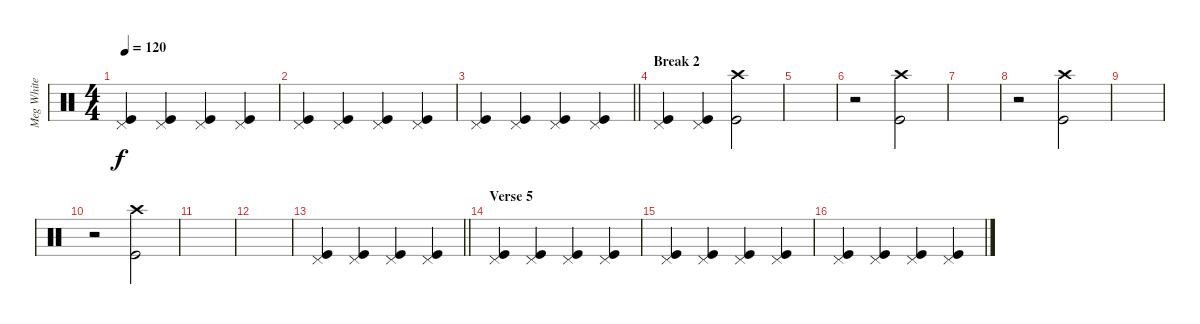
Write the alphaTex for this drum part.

\track ("Meg White (Drums)" "Meg White ") {instrument percussion}
\staff {score}
\articulation defaults
\ts (4 4)
\tempo 120
\clef neutral
\ks c
("Kick (hit)" "Pedal Hi-Hat (hit)").4{dy f} ("Kick (hit)" "Pedal Hi-Hat (hit)").4 ("Kick (hit)" "Pedal Hi-Hat (hit)").4 ("Kick (hit)" "Pedal Hi-Hat (hit)").4 |
("Kick (hit)" "Pedal Hi-Hat (hit)").4 ("Kick (hit)" "Pedal Hi-Hat (hit)").4 ("Kick (hit)" "Pedal Hi-Hat (hit)").4 ("Kick (hit)" "Pedal Hi-Hat (hit)").4 |
\barLineRight lightlight
("Kick (hit)" "Pedal Hi-Hat (hit)").4 ("Kick (hit)" "Pedal Hi-Hat (hit)").4 ("Kick (hit)" "Pedal Hi-Hat (hit)").4 ("Kick (hit)" "Pedal Hi-Hat (hit)").4 |
\section ("" "Break 2")
("Kick (hit)" "Pedal Hi-Hat (hit)").4 ("Kick (hit)" "Pedal Hi-Hat (hit)").4 ("Kick (hit)" "Crash high (hit)").2 |
|
r.2 ("Kick (hit)" "Crash high (hit)").2 |
|
r.2 ("Kick (hit)" "Crash high (hit)").2 |
|
r.2 ("Kick (hit)" "Crash high (hit)").2 |
|
|
\barLineRight lightlight
("Kick (hit)" "Pedal Hi-Hat (hit)").4 ("Kick (hit)" "Pedal Hi-Hat (hit)").4 ("Kick (hit)" "Pedal Hi-Hat (hit)").4 ("Kick (hit)" "Pedal Hi-Hat (hit)").4 |
\section ("" "Verse 5")
("Kick (hit)" "Pedal Hi-Hat (hit)").4 ("Kick (hit)" "Pedal Hi-Hat (hit)").4 ("Kick (hit)" "Pedal Hi-Hat (hit)").4 ("Kick (hit)" "Pedal Hi-Hat (hit)").4 |
("Kick (hit)" "Pedal Hi-Hat (hit)").4 ("Kick (hit)" "Pedal Hi-Hat (hit)").4 ("Kick (hit)" "Pedal Hi-Hat (hit)").4 ("Kick (hit)" "Pedal Hi-Hat (hit)").4 |
("Kick (hit)" "Pedal Hi-Hat (hit)").4 ("Kick (hit)" "Pedal Hi-Hat (hit)").4 ("Kick (hit)" "Pedal Hi-Hat (hit)").4 ("Kick (hit)" "Pedal Hi-Hat (hit)").4
